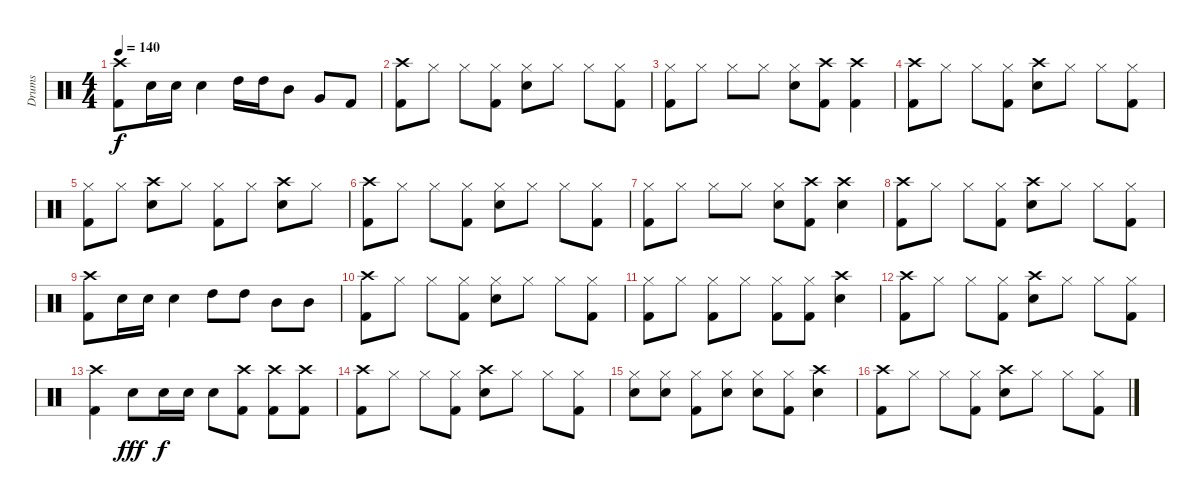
\track ("Drums" "Drums") {instrument percussion}
\staff {score}
\articulation defaults
\ts (4 4)
\tempo 140
\clef neutral
\ks c
("Crash high (hit)" "Kick (hit) 2").8{dy f} "Snare (hit) 2".16 "Snare (hit) 2".16 "Snare (hit) 2".4 "High Tom (hit)".16 "High Tom (hit)".16 "Mid Tom (hit)".8 "Very Low Tom (hit)".8 "Kick (hit) 2".8 |
("Crash high (hit)" "Kick (hit) 2").8 "Hi-Hat (closed)".8 "Hi-Hat (closed)".8 ("Hi-Hat (closed)" "Kick (hit) 2").8 ("Hi-Hat (closed)" "Snare (hit) 2").8 "Hi-Hat (closed)".8 "Hi-Hat (closed)".8 ("Hi-Hat (closed)" "Kick (hit) 2").8 |
("Hi-Hat (closed)" "Kick (hit) 2").8 "Hi-Hat (closed)".8 "Hi-Hat (closed)".8 "Hi-Hat (closed)".8 ("Hi-Hat (closed)" "Snare (hit) 2").8 ("Crash high (hit)" "Kick (hit) 2").8 ("Crash high (hit)" "Kick (hit) 2").4 |
("Crash high (hit)" "Kick (hit) 2").8 "Hi-Hat (closed)".8 "Hi-Hat (closed)".8 ("Hi-Hat (closed)" "Kick (hit) 2").8 ("Crash high (hit)" "Snare (hit) 2").8 "Hi-Hat (closed)".8 "Hi-Hat (closed)".8 ("Hi-Hat (closed)" "Kick (hit) 2").8 |
("Hi-Hat (closed)" "Kick (hit) 2").8 "Hi-Hat (closed)".8 ("Crash high (hit)" "Snare (hit) 2").8 "Hi-Hat (closed)".8 ("Hi-Hat (closed)" "Kick (hit) 2").8 "Hi-Hat (closed)".8 ("Crash high (hit)" "Snare (hit) 2").8 "Hi-Hat (closed)".8 |
("Crash high (hit)" "Kick (hit) 2").8 "Hi-Hat (closed)".8 "Hi-Hat (closed)".8 ("Hi-Hat (closed)" "Kick (hit) 2").8 ("Hi-Hat (closed)" "Snare (hit) 2").8 "Hi-Hat (closed)".8 "Hi-Hat (closed)".8 ("Hi-Hat (closed)" "Kick (hit) 2").8 |
("Hi-Hat (closed)" "Kick (hit) 2").8 "Hi-Hat (closed)".8 "Hi-Hat (closed)".8 "Hi-Hat (closed)".8 ("Hi-Hat (closed)" "Snare (hit) 2").8 ("Crash high (hit)" "Kick (hit) 2").8 ("Crash high (hit)" "Snare (hit) 2").4 |
("Crash high (hit)" "Kick (hit) 2").8 "Hi-Hat (closed)".8 "Hi-Hat (closed)".8 ("Hi-Hat (closed)" "Kick (hit) 2").8 ("Crash high (hit)" "Snare (hit) 2").8 "Hi-Hat (closed)".8 "Hi-Hat (closed)".8 ("Hi-Hat (closed)" "Kick (hit) 2").8 |
("Crash high (hit)" "Kick (hit) 2").8 "Snare (hit) 2".16 "Snare (hit) 2".16 "Snare (hit) 2".4 "High Tom (hit)".8 "High Tom (hit)".8 "Mid Tom (hit)".8 "Mid Tom (hit)".8 |
("Crash high (hit)" "Kick (hit) 2").8 "Hi-Hat (closed)".8 "Hi-Hat (closed)".8 ("Hi-Hat (closed)" "Kick (hit) 2").8 ("Hi-Hat (closed)" "Snare (hit) 2").8 "Hi-Hat (closed)".8 "Hi-Hat (closed)".8 ("Hi-Hat (closed)" "Kick (hit) 2").8 |
("Hi-Hat (closed)" "Kick (hit) 2").8 "Hi-Hat (closed)".8 ("Hi-Hat (closed)" "Kick (hit) 2").8 "Hi-Hat (closed)".8 ("Hi-Hat (closed)" "Kick (hit) 2").8 ("Hi-Hat (closed)" "Kick (hit) 2").8 ("Crash high (hit)" "Snare (hit) 2").4 |
("Crash high (hit)" "Kick (hit) 2").8 "Hi-Hat (closed)".8 "Hi-Hat (closed)".8 ("Hi-Hat (closed)" "Kick (hit) 2").8 ("Crash high (hit)" "Snare (hit) 2").8 "Hi-Hat (closed)".8 "Hi-Hat (closed)".8 ("Hi-Hat (closed)" "Kick (hit) 2").8 |
("Crash high (hit)" "Kick (hit) 2").4 "Snare (hit) 2".8{dy fff} "Snare (hit) 2".16{dy f} "Snare (hit) 2".16 "Snare (hit) 2".8 ("Crash high (hit)" "Kick (hit) 2").8 ("Crash high (hit)" "Kick (hit) 2").8 ("Crash high (hit)" "Kick (hit) 2").8 |
("Crash high (hit)" "Kick (hit) 2").8 "Hi-Hat (closed)".8 "Hi-Hat (closed)".8 ("Hi-Hat (closed)" "Kick (hit) 2").8 ("Crash high (hit)" "Snare (hit) 2").8 "Hi-Hat (closed)".8 "Hi-Hat (closed)".8 ("Hi-Hat (closed)" "Kick (hit) 2").8 |
("Hi-Hat (closed)" "Snare (hit) 2").8 ("Hi-Hat (closed)" "Snare (hit) 2").8 ("Hi-Hat (closed)" "Kick (hit) 2").8 ("Hi-Hat (closed)" "Snare (hit) 2").8 ("Hi-Hat (closed)" "Snare (hit) 2").8 ("Hi-Hat (closed)" "Kick (hit) 2").8 ("Crash high (hit)" "Snare (hit) 2").4 |
("Crash high (hit)" "Kick (hit) 2").8 "Hi-Hat (closed)".8 "Hi-Hat (closed)".8 ("Hi-Hat (closed)" "Kick (hit) 2").8 ("Crash high (hit)" "Snare (hit) 2").8 "Hi-Hat (closed)".8 "Hi-Hat (closed)".8 ("Hi-Hat (closed)" "Kick (hit) 2").8
